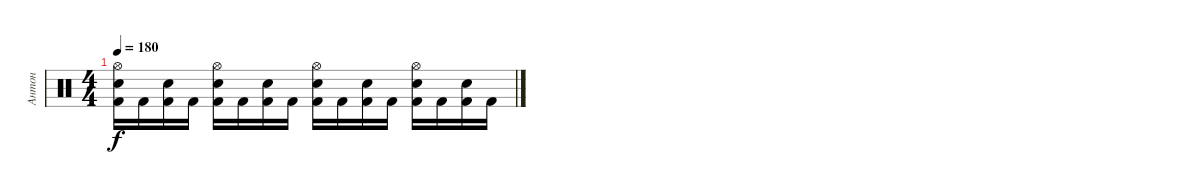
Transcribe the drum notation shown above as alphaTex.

\track ("Антон" "Антон") {instrument percussion}
\staff {score}
\articulation defaults
\ts (4 4)
\tempo 180
\clef neutral
\ks c
("Hi-Hat (open)" "Electric Snare (hit)" "Kick (hit) 2").16{dy f} "Kick (hit) 2".16 ("Electric Snare (hit)" "Kick (hit) 2").16 "Kick (hit) 2".16 ("Hi-Hat (open)" "Electric Snare (hit)" "Kick (hit) 2").16 "Kick (hit) 2".16 ("Electric Snare (hit)" "Kick (hit) 2").16 "Kick (hit) 2".16 ("Hi-Hat (open)" "Electric Snare (hit)" "Kick (hit) 2").16 "Kick (hit) 2".16 ("Electric Snare (hit)" "Kick (hit) 2").16 "Kick (hit) 2".16 ("Hi-Hat (open)" "Electric Snare (hit)" "Kick (hit) 2").16 "Kick (hit) 2".16 ("Electric Snare (hit)" "Kick (hit) 2").16 "Kick (hit) 2".16
